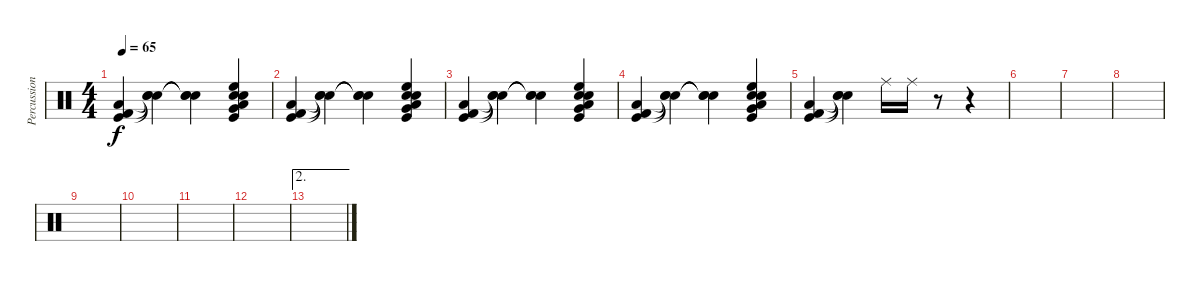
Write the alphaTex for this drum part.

\track ("Percussion" "Percussion") {instrument percussion}
\staff {score}
\articulation defaults
\ts (4 4)
\tempo 65
\clef neutral
\ks c
("Low Floor Tom (hit)" "Kick (hit)" "Kick (hit) 2").4{dy f} ("Snare (hit)"{t} "Snare (hit)"{t} "Snare (hit)"{t}).4 ("Snare (hit)"{t} "Snare (hit)"{t} "Snare (hit)"{t}).4 ("Electric Snare (hit)" "Kick (hit)" "High Floor Tom (hit)" "Hand Clap (hit)" "Low Tom (hit)" "Very Low Tom (hit)").4 |
("Low Floor Tom (hit)" "Kick (hit)" "Kick (hit) 2").4 ("Snare (hit)"{t} "Snare (hit)"{t} "Snare (hit)"{t}).4 ("Snare (hit)"{t} "Snare (hit)"{t} "Snare (hit)"{t}).4 ("Electric Snare (hit)" "Kick (hit)" "High Floor Tom (hit)" "Hand Clap (hit)" "Low Tom (hit)" "Very Low Tom (hit)").4 |
("Low Floor Tom (hit)" "Kick (hit)" "Kick (hit) 2").4 ("Snare (hit)"{t} "Snare (hit)"{t} "Snare (hit)"{t}).4 ("Snare (hit)"{t} "Snare (hit)"{t} "Snare (hit)"{t}).4 ("Electric Snare (hit)" "Kick (hit)" "High Floor Tom (hit)" "Hand Clap (hit)" "Low Tom (hit)" "Very Low Tom (hit)").4 |
("Low Floor Tom (hit)" "Kick (hit)" "Kick (hit) 2").4 ("Snare (hit)"{t} "Snare (hit)"{t} "Snare (hit)"{t}).4 ("Snare (hit)"{t} "Snare (hit)"{t} "Snare (hit)"{t}).4 ("Electric Snare (hit)" "Kick (hit)" "High Floor Tom (hit)" "Hand Clap (hit)" "Low Tom (hit)" "Very Low Tom (hit)").4 |
("Low Floor Tom (hit)" "Kick (hit)" "Kick (hit) 2").4 ("Snare (hit)"{t} "Snare (hit)"{t} "Snare (hit)"{t}).4 "Ride (middle)".16 "Ride (middle)".16 r.8 r.4 |
|
|
|
|
|
|
|
\ae 2
